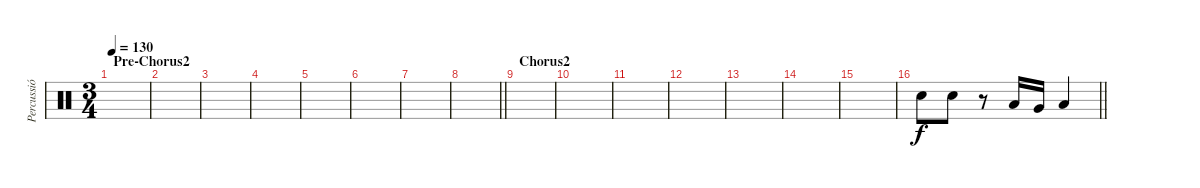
\track ("Percussió" "Percussió") {instrument percussion}
\staff {score}
\articulation defaults
\ts (3 4)
\section ("" "Pre-Chorus2")
\tempo 130
\clef neutral
\ks c
|
|
|
|
|
|
|
\barLineRight lightlight
|
\section ("" "Chorus2")
|
|
|
|
|
|
|
\barLineRight lightlight "Snare (hit) 2".8 "Snare (hit) 2".8
r.8 "Low Tom (hit)".16 "Very Low Tom (hit)".16 "Low Floor Tom (hit)".4
